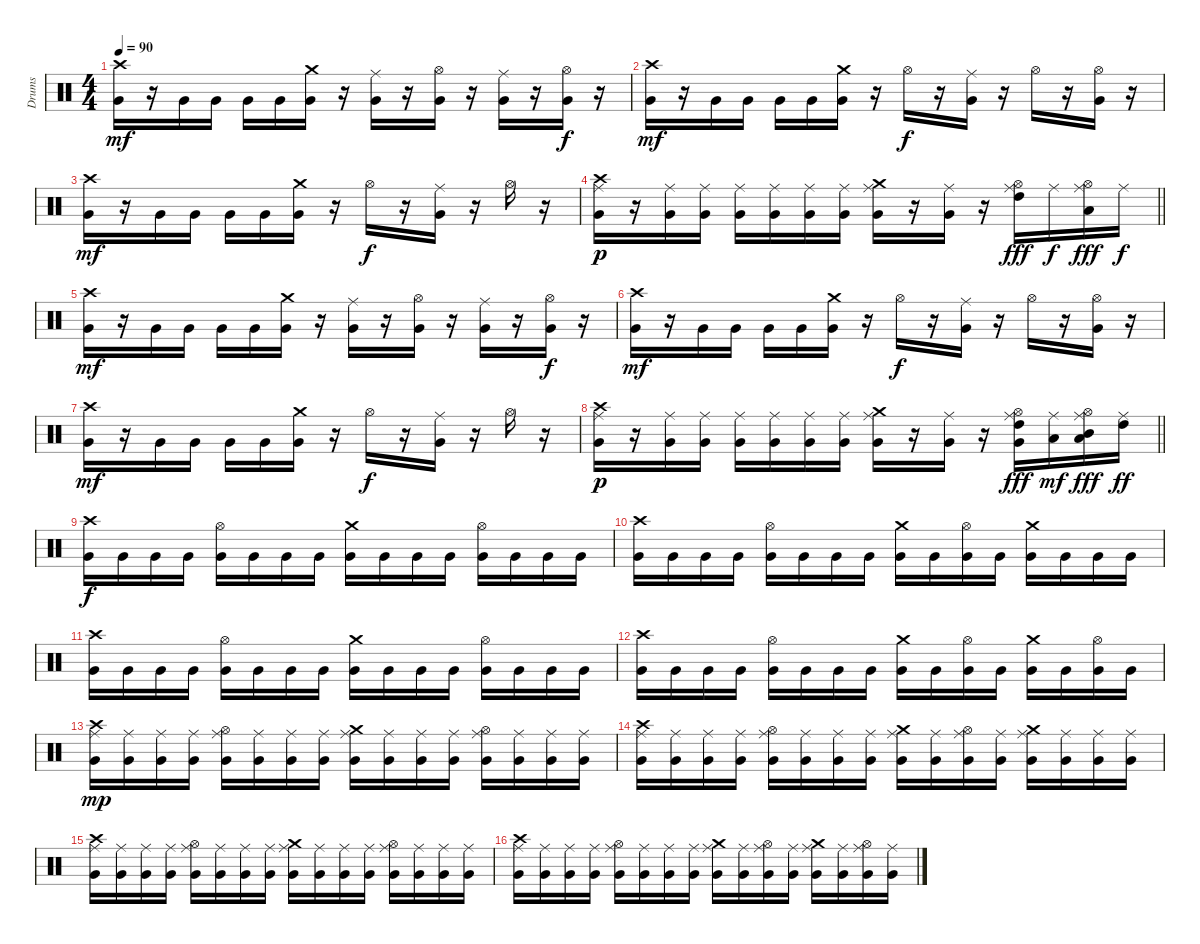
\track ("Drums" "Drums") {instrument percussion}
\staff {score}
\articulation defaults
\ts (4 4)
\section ("" "")
\tempo 90
\clef neutral
\ks c
("Crash high (hit)" "Very Low Tom (hit)").16{dy mf} r.16 "Very Low Tom (hit)".16 "Very Low Tom (hit)".16 "Very Low Tom (hit)".16 "Very Low Tom (hit)".16 ("Crash medium (hit)" "Very Low Tom (hit)").16 r.16 ("Ride (middle)" "Very Low Tom (hit)").16 r.16 ("Hi-Hat (open)" "Very Low Tom (hit)").16 r.16 ("Ride (middle)" "Very Low Tom (hit)").16 r.16 ("Hi-Hat (open)" "Very Low Tom (hit)").16{dy f} r.16 |
("Crash high (hit)" "Very Low Tom (hit)").16{dy mf} r.16 "Very Low Tom (hit)".16 "Very Low Tom (hit)".16 "Very Low Tom (hit)".16 "Very Low Tom (hit)".16 ("Crash medium (hit)" "Very Low Tom (hit)").16 r.16 "Hi-Hat (open)".16{dy f} r.16 ("Ride (middle)" "Very Low Tom (hit)").16 r.16 "Hi-Hat (open)".16 r.16 ("Hi-Hat (open)" "Very Low Tom (hit)").16 r.16 |
("Crash high (hit)" "Very Low Tom (hit)").16{dy mf} r.16 "Very Low Tom (hit)".16 "Very Low Tom (hit)".16 "Very Low Tom (hit)".16 "Very Low Tom (hit)".16 ("Crash medium (hit)" "Very Low Tom (hit)").16 r.16 "Hi-Hat (open)".16{dy f} r.16 ("Ride (middle)" "Very Low Tom (hit)").16 r.16 "Hi-Hat (open)".16 r.16 |
\barLineRight lightlight
("Crash high (hit)" "Ride (middle)" "Very Low Tom (hit)").16{dy p} r.16 ("Ride (middle)" "Very Low Tom (hit)").16 ("Ride (middle)" "Very Low Tom (hit)").16 ("Ride (middle)" "Very Low Tom (hit)").16 ("Ride (middle)" "Very Low Tom (hit)").16 ("Ride (middle)" "Very Low Tom (hit)").16 ("Ride (middle)" "Very Low Tom (hit)").16 ("Crash medium (hit)" "Ride (middle)" "Very Low Tom (hit)").16 r.16 ("Ride (middle)" "Very Low Tom (hit)").16 r.16 ("Hi-Hat (open)" "Ride (middle)" "High Tom (hit)").16{dy fff} "Ride (middle)".16{dy f} ("Hi-Hat (open)" "Ride (middle)" "Low Tom (hit)").16{dy fff} "Ride (middle)".16{dy f} |
("Crash high (hit)" "Very Low Tom (hit)").16{dy mf} r.16 "Very Low Tom (hit)".16 "Very Low Tom (hit)".16 "Very Low Tom (hit)".16 "Very Low Tom (hit)".16 ("Crash medium (hit)" "Very Low Tom (hit)").16 r.16 ("Ride (middle)" "Very Low Tom (hit)").16 r.16 ("Hi-Hat (open)" "Very Low Tom (hit)").16 r.16 ("Ride (middle)" "Very Low Tom (hit)").16 r.16 ("Hi-Hat (open)" "Very Low Tom (hit)").16{dy f} r.16 |
("Crash high (hit)" "Very Low Tom (hit)").16{dy mf} r.16 "Very Low Tom (hit)".16 "Very Low Tom (hit)".16 "Very Low Tom (hit)".16 "Very Low Tom (hit)".16 ("Crash medium (hit)" "Very Low Tom (hit)").16 r.16 "Hi-Hat (open)".16{dy f} r.16 ("Ride (middle)" "Very Low Tom (hit)").16 r.16 "Hi-Hat (open)".16 r.16 ("Hi-Hat (open)" "Very Low Tom (hit)").16 r.16 |
("Crash high (hit)" "Very Low Tom (hit)").16{dy mf} r.16 "Very Low Tom (hit)".16 "Very Low Tom (hit)".16 "Very Low Tom (hit)".16 "Very Low Tom (hit)".16 ("Crash medium (hit)" "Very Low Tom (hit)").16 r.16 "Hi-Hat (open)".16{dy f} r.16 ("Ride (middle)" "Very Low Tom (hit)").16 r.16 "Hi-Hat (open)".16 r.16 |
\barLineRight lightlight
("Crash high (hit)" "Ride (middle)" "Very Low Tom (hit)").16{dy p} r.16 ("Ride (middle)" "Very Low Tom (hit)").16 ("Ride (middle)" "Very Low Tom (hit)").16 ("Ride (middle)" "Very Low Tom (hit)").16 ("Ride (middle)" "Very Low Tom (hit)").16 ("Ride (middle)" "Very Low Tom (hit)").16 ("Ride (middle)" "Very Low Tom (hit)").16 ("Crash medium (hit)" "Ride (middle)" "Very Low Tom (hit)").16 r.16 ("Ride (middle)" "Very Low Tom (hit)").16 r.16 ("Hi-Hat (open)" "Ride (middle)" "Very Low Tom (hit)" "High Tom (hit)").16{dy fff} ("Ride (middle)" "Low Tom (hit)").16{dy mf} ("Hi-Hat (open)" "Ride (middle)" "Mid Tom (hit)" "Low Tom (hit)").16{dy fff} ("Ride (middle)" "High Tom (hit)").16{dy ff} |
("Crash high (hit)" "Very Low Tom (hit)").16{dy f} "Very Low Tom (hit)".16 "Very Low Tom (hit)".16 "Very Low Tom (hit)".16 ("Hi-Hat (open)" "Very Low Tom (hit)").16 "Very Low Tom (hit)".16 "Very Low Tom (hit)".16 "Very Low Tom (hit)".16 ("Crash medium (hit)" "Very Low Tom (hit)").16 "Very Low Tom (hit)".16 "Very Low Tom (hit)".16 "Very Low Tom (hit)".16 ("Hi-Hat (open)" "Very Low Tom (hit)").16 "Very Low Tom (hit)".16 "Very Low Tom (hit)".16 "Very Low Tom (hit)".16 |
("Crash high (hit)" "Very Low Tom (hit)").16 "Very Low Tom (hit)".16 "Very Low Tom (hit)".16 "Very Low Tom (hit)".16 ("Hi-Hat (open)" "Very Low Tom (hit)").16 "Very Low Tom (hit)".16 "Very Low Tom (hit)".16 "Very Low Tom (hit)".16 ("Crash medium (hit)" "Very Low Tom (hit)").16 "Very Low Tom (hit)".16 ("Hi-Hat (open)" "Very Low Tom (hit)").16 "Very Low Tom (hit)".16 ("Crash medium (hit)" "Very Low Tom (hit)").16 "Very Low Tom (hit)".16 "Very Low Tom (hit)".16 "Very Low Tom (hit)".16 |
("Crash high (hit)" "Very Low Tom (hit)").16 "Very Low Tom (hit)".16 "Very Low Tom (hit)".16 "Very Low Tom (hit)".16 ("Hi-Hat (open)" "Very Low Tom (hit)").16 "Very Low Tom (hit)".16 "Very Low Tom (hit)".16 "Very Low Tom (hit)".16 ("Crash medium (hit)" "Very Low Tom (hit)").16 "Very Low Tom (hit)".16 "Very Low Tom (hit)".16 "Very Low Tom (hit)".16 ("Hi-Hat (open)" "Very Low Tom (hit)").16 "Very Low Tom (hit)".16 "Very Low Tom (hit)".16 "Very Low Tom (hit)".16 |
("Crash high (hit)" "Very Low Tom (hit)").16 "Very Low Tom (hit)".16 "Very Low Tom (hit)".16 "Very Low Tom (hit)".16 ("Hi-Hat (open)" "Very Low Tom (hit)").16 "Very Low Tom (hit)".16 "Very Low Tom (hit)".16 "Very Low Tom (hit)".16 ("Crash medium (hit)" "Very Low Tom (hit)").16 "Very Low Tom (hit)".16 ("Hi-Hat (open)" "Very Low Tom (hit)").16 "Very Low Tom (hit)".16 ("Crash medium (hit)" "Very Low Tom (hit)").16 "Very Low Tom (hit)".16 ("Hi-Hat (open)" "Very Low Tom (hit)").16 "Very Low Tom (hit)".16 |
("Crash high (hit)" "Ride (middle)" "Very Low Tom (hit)").16{dy mp} ("Ride (middle)" "Very Low Tom (hit)").16 ("Ride (middle)" "Very Low Tom (hit)").16 ("Ride (middle)" "Very Low Tom (hit)").16 ("Hi-Hat (open)" "Ride (middle)" "Very Low Tom (hit)").16 ("Ride (middle)" "Very Low Tom (hit)").16 ("Ride (middle)" "Very Low Tom (hit)").16 ("Ride (middle)" "Very Low Tom (hit)").16 ("Crash medium (hit)" "Ride (middle)" "Very Low Tom (hit)").16 ("Ride (middle)" "Very Low Tom (hit)").16 ("Ride (middle)" "Very Low Tom (hit)").16 ("Ride (middle)" "Very Low Tom (hit)").16 ("Hi-Hat (open)" "Ride (middle)" "Very Low Tom (hit)").16 ("Ride (middle)" "Very Low Tom (hit)").16 ("Ride (middle)" "Very Low Tom (hit)").16 ("Ride (middle)" "Very Low Tom (hit)").16 |
("Crash high (hit)" "Ride (middle)" "Very Low Tom (hit)").16 ("Ride (middle)" "Very Low Tom (hit)").16 ("Ride (middle)" "Very Low Tom (hit)").16 ("Ride (middle)" "Very Low Tom (hit)").16 ("Hi-Hat (open)" "Ride (middle)" "Very Low Tom (hit)").16 ("Ride (middle)" "Very Low Tom (hit)").16 ("Ride (middle)" "Very Low Tom (hit)").16 ("Ride (middle)" "Very Low Tom (hit)").16 ("Crash medium (hit)" "Ride (middle)" "Very Low Tom (hit)").16 ("Ride (middle)" "Very Low Tom (hit)").16 ("Hi-Hat (open)" "Ride (middle)" "Very Low Tom (hit)").16 ("Ride (middle)" "Very Low Tom (hit)").16 ("Crash medium (hit)" "Ride (middle)" "Very Low Tom (hit)").16 ("Ride (middle)" "Very Low Tom (hit)").16 ("Ride (middle)" "Very Low Tom (hit)").16 ("Ride (middle)" "Very Low Tom (hit)").16 |
("Crash high (hit)" "Ride (middle)" "Very Low Tom (hit)").16 ("Ride (middle)" "Very Low Tom (hit)").16 ("Ride (middle)" "Very Low Tom (hit)").16 ("Ride (middle)" "Very Low Tom (hit)").16 ("Hi-Hat (open)" "Ride (middle)" "Very Low Tom (hit)").16 ("Ride (middle)" "Very Low Tom (hit)").16 ("Ride (middle)" "Very Low Tom (hit)").16 ("Ride (middle)" "Very Low Tom (hit)").16 ("Crash medium (hit)" "Ride (middle)" "Very Low Tom (hit)").16 ("Ride (middle)" "Very Low Tom (hit)").16 ("Ride (middle)" "Very Low Tom (hit)").16 ("Ride (middle)" "Very Low Tom (hit)").16 ("Hi-Hat (open)" "Ride (middle)" "Very Low Tom (hit)").16 ("Ride (middle)" "Very Low Tom (hit)").16 ("Ride (middle)" "Very Low Tom (hit)").16 ("Ride (middle)" "Very Low Tom (hit)").16 |
("Crash high (hit)" "Ride (middle)" "Very Low Tom (hit)").16 ("Ride (middle)" "Very Low Tom (hit)").16 ("Ride (middle)" "Very Low Tom (hit)").16 ("Ride (middle)" "Very Low Tom (hit)").16 ("Hi-Hat (open)" "Ride (middle)" "Very Low Tom (hit)").16 ("Ride (middle)" "Very Low Tom (hit)").16 ("Ride (middle)" "Very Low Tom (hit)").16 ("Ride (middle)" "Very Low Tom (hit)").16 ("Crash medium (hit)" "Ride (middle)" "Very Low Tom (hit)").16 ("Ride (middle)" "Very Low Tom (hit)").16 ("Hi-Hat (open)" "Ride (middle)" "Very Low Tom (hit)").16 ("Ride (middle)" "Very Low Tom (hit)").16 ("Crash medium (hit)" "Ride (middle)" "Very Low Tom (hit)").16 ("Ride (middle)" "Very Low Tom (hit)").16 ("Hi-Hat (open)" "Ride (middle)" "Very Low Tom (hit)").16 ("Ride (middle)" "Very Low Tom (hit)").16
